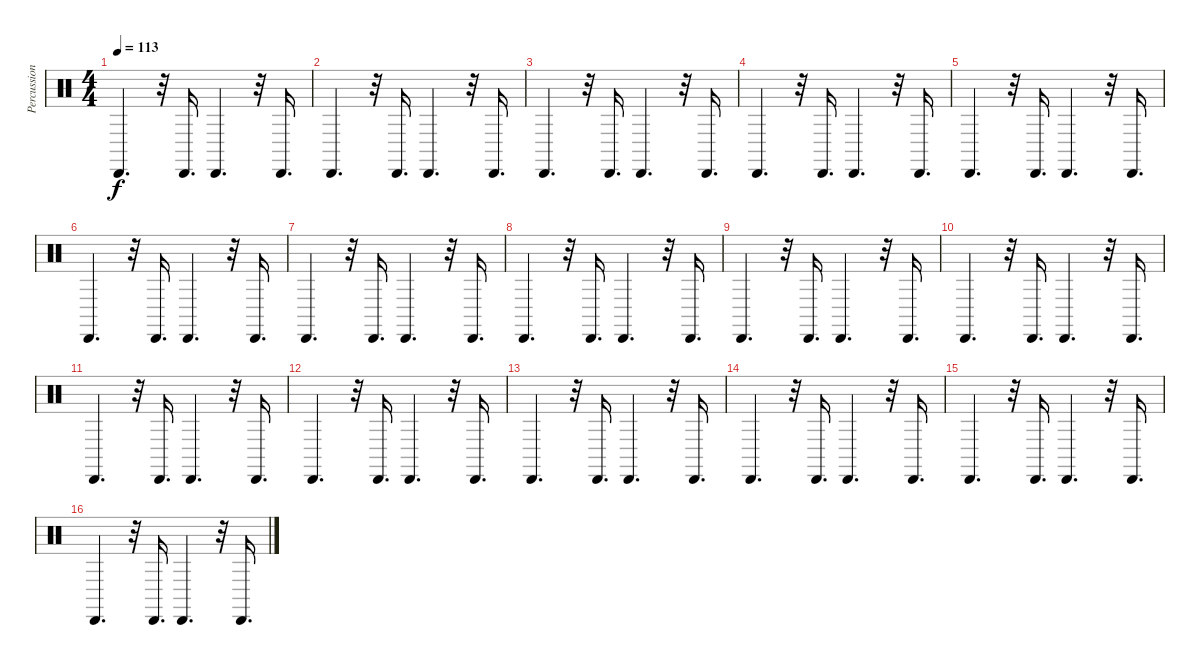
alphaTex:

\track ("Percussion" "Percussion") {instrument percussion}
\staff {score}
\articulation defaults
\ts (4 4)
\tempo 113
\clef neutral
\ks c "Cabasa (hit)".4{d dy f}
r.32 "Cabasa (hit)".16{d} "Cabasa (hit)".4{d} r.32 "Cabasa (hit)".16{d} |
"Cabasa (hit)".4{d} r.32 "Cabasa (hit)".16{d} "Cabasa (hit)".4{d} r.32 "Cabasa (hit)".16{d} |
"Cabasa (hit)".4{d} r.32 "Cabasa (hit)".16{d} "Cabasa (hit)".4{d} r.32 "Cabasa (hit)".16{d} |
"Cabasa (hit)".4{d} r.32 "Cabasa (hit)".16{d} "Cabasa (hit)".4{d} r.32 "Cabasa (hit)".16{d} |
"Cabasa (hit)".4{d} r.32 "Cabasa (hit)".16{d} "Cabasa (hit)".4{d} r.32 "Cabasa (hit)".16{d} |
"Cabasa (hit)".4{d} r.32 "Cabasa (hit)".16{d} "Cabasa (hit)".4{d} r.32 "Cabasa (hit)".16{d} |
"Cabasa (hit)".4{d} r.32 "Cabasa (hit)".16{d} "Cabasa (hit)".4{d} r.32 "Cabasa (hit)".16{d} |
"Cabasa (hit)".4{d} r.32 "Cabasa (hit)".16{d} "Cabasa (hit)".4{d} r.32 "Cabasa (hit)".16{d} |
"Cabasa (hit)".4{d} r.32 "Cabasa (hit)".16{d} "Cabasa (hit)".4{d} r.32 "Cabasa (hit)".16{d} |
"Cabasa (hit)".4{d} r.32 "Cabasa (hit)".16{d} "Cabasa (hit)".4{d} r.32 "Cabasa (hit)".16{d} |
"Cabasa (hit)".4{d} r.32 "Cabasa (hit)".16{d} "Cabasa (hit)".4{d} r.32 "Cabasa (hit)".16{d} |
"Cabasa (hit)".4{d} r.32 "Cabasa (hit)".16{d} "Cabasa (hit)".4{d} r.32 "Cabasa (hit)".16{d} |
"Cabasa (hit)".4{d} r.32 "Cabasa (hit)".16{d} "Cabasa (hit)".4{d} r.32 "Cabasa (hit)".16{d} |
"Cabasa (hit)".4{d} r.32 "Cabasa (hit)".16{d} "Cabasa (hit)".4{d} r.32 "Cabasa (hit)".16{d} |
"Cabasa (hit)".4{d} r.32 "Cabasa (hit)".16{d} "Cabasa (hit)".4{d} r.32 "Cabasa (hit)".16{d} |
"Cabasa (hit)".4{d} r.32 "Cabasa (hit)".16{d} "Cabasa (hit)".4{d} r.32 "Cabasa (hit)".16{d}
